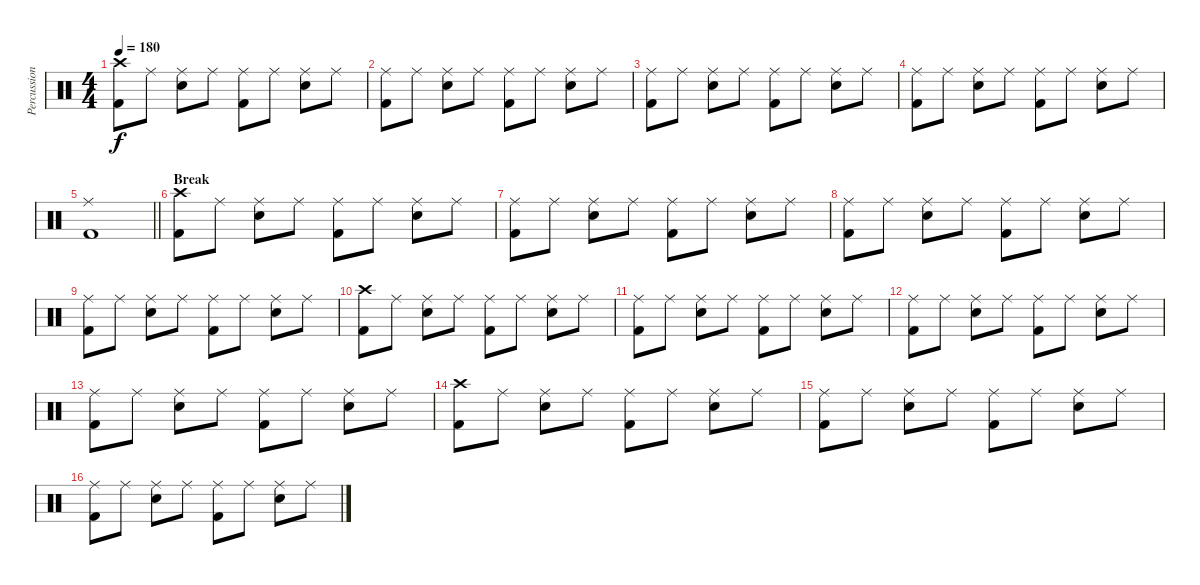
\track ("Percussion" "Percussion") {instrument percussion}
\staff {score}
\articulation defaults
\ts (4 4)
\tempo 180
\clef neutral
\ks c
("Crash high (hit)" "Kick (hit) 2").8{dy f} "Ride (middle)".8 ("Ride (middle)" "Snare (hit) 2").8 "Ride (middle)".8 ("Ride (middle)" "Kick (hit) 2").8 "Ride (middle)".8 ("Ride (middle)" "Snare (hit) 2").8 "Ride (middle)".8 |
("Ride (middle)" "Kick (hit) 2").8 "Ride (middle)".8 ("Ride (middle)" "Snare (hit) 2").8 "Ride (middle)".8 ("Ride (middle)" "Kick (hit) 2").8 "Ride (middle)".8 ("Ride (middle)" "Snare (hit) 2").8 "Ride (middle)".8 |
("Ride (middle)" "Kick (hit) 2").8 "Ride (middle)".8 ("Ride (middle)" "Snare (hit) 2").8 "Ride (middle)".8 ("Ride (middle)" "Kick (hit) 2").8 "Ride (middle)".8 ("Ride (middle)" "Snare (hit) 2").8 "Ride (middle)".8 |
("Ride (middle)" "Kick (hit) 2").8 "Ride (middle)".8 ("Ride (middle)" "Snare (hit) 2").8 "Ride (middle)".8 ("Ride (middle)" "Kick (hit) 2").8 "Ride (middle)".8 ("Ride (middle)" "Snare (hit) 2").8 "Ride (middle)".8 |
\barLineRight lightlight
("Ride (middle)" "Kick (hit) 2").1 |
\section ("" "Break")
("Crash high (hit)" "Kick (hit) 2").8 "Ride (middle)".8 ("Ride (middle)" "Snare (hit) 2").8 "Ride (middle)".8 ("Ride (middle)" "Kick (hit) 2").8 "Ride (middle)".8 ("Ride (middle)" "Snare (hit) 2").8 "Ride (middle)".8 |
("Ride (middle)" "Kick (hit) 2").8 "Ride (middle)".8 ("Ride (middle)" "Snare (hit) 2").8 "Ride (middle)".8 ("Ride (middle)" "Kick (hit) 2").8 "Ride (middle)".8 ("Ride (middle)" "Snare (hit) 2").8 "Ride (middle)".8 |
("Ride (middle)" "Kick (hit) 2").8 "Ride (middle)".8 ("Ride (middle)" "Snare (hit) 2").8 "Ride (middle)".8 ("Ride (middle)" "Kick (hit) 2").8 "Ride (middle)".8 ("Ride (middle)" "Snare (hit) 2").8 "Ride (middle)".8 |
("Ride (middle)" "Kick (hit) 2").8 "Ride (middle)".8 ("Ride (middle)" "Snare (hit) 2").8 "Ride (middle)".8 ("Ride (middle)" "Kick (hit) 2").8 "Ride (middle)".8 ("Ride (middle)" "Snare (hit) 2").8 "Ride (middle)".8 |
("Crash high (hit)" "Kick (hit) 2").8 "Ride (middle)".8 ("Ride (middle)" "Snare (hit) 2").8 "Ride (middle)".8 ("Ride (middle)" "Kick (hit) 2").8 "Ride (middle)".8 ("Ride (middle)" "Snare (hit) 2").8 "Ride (middle)".8 |
("Ride (middle)" "Kick (hit) 2").8 "Ride (middle)".8 ("Ride (middle)" "Snare (hit) 2").8 "Ride (middle)".8 ("Ride (middle)" "Kick (hit) 2").8 "Ride (middle)".8 ("Ride (middle)" "Snare (hit) 2").8 "Ride (middle)".8 |
("Ride (middle)" "Kick (hit) 2").8 "Ride (middle)".8 ("Ride (middle)" "Snare (hit) 2").8 "Ride (middle)".8 ("Ride (middle)" "Kick (hit) 2").8 "Ride (middle)".8 ("Ride (middle)" "Snare (hit) 2").8 "Ride (middle)".8 |
("Ride (middle)" "Kick (hit) 2").8 "Ride (middle)".8 ("Ride (middle)" "Snare (hit) 2").8 "Ride (middle)".8 ("Ride (middle)" "Kick (hit) 2").8 "Ride (middle)".8 ("Ride (middle)" "Snare (hit) 2").8 "Ride (middle)".8 |
("Crash high (hit)" "Kick (hit) 2").8 "Ride (middle)".8 ("Ride (middle)" "Snare (hit) 2").8 "Ride (middle)".8 ("Ride (middle)" "Kick (hit) 2").8 "Ride (middle)".8 ("Ride (middle)" "Snare (hit) 2").8 "Ride (middle)".8 |
("Ride (middle)" "Kick (hit) 2").8 "Ride (middle)".8 ("Ride (middle)" "Snare (hit) 2").8 "Ride (middle)".8 ("Ride (middle)" "Kick (hit) 2").8 "Ride (middle)".8 ("Ride (middle)" "Snare (hit) 2").8 "Ride (middle)".8 |
("Ride (middle)" "Kick (hit) 2").8 "Ride (middle)".8 ("Ride (middle)" "Snare (hit) 2").8 "Ride (middle)".8 ("Ride (middle)" "Kick (hit) 2").8 "Ride (middle)".8 ("Ride (middle)" "Snare (hit) 2").8 "Ride (middle)".8
